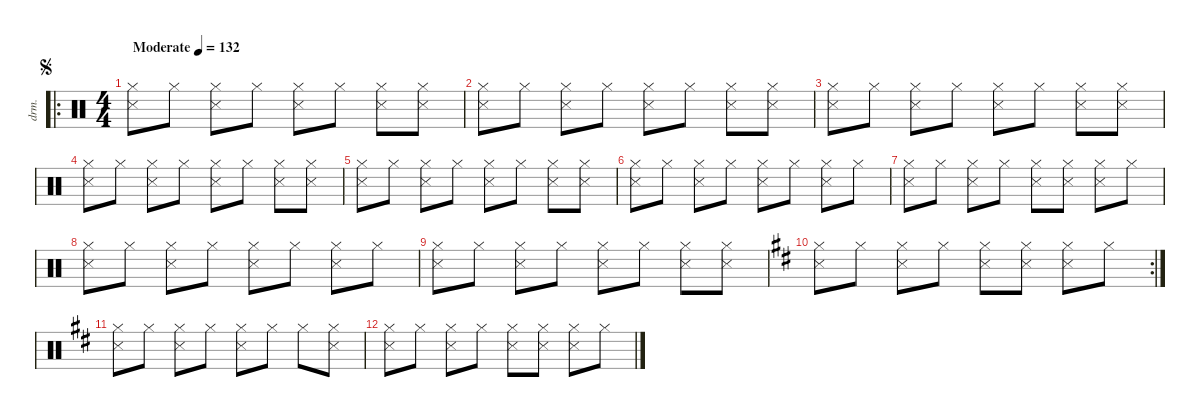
\defaultSystemsLayout 4
\hideDynamics
\bracketExtendMode nobrackets
\otherSystemsTrackNameOrientation horizontal
\track ("Percussion" "drm.") {instrument percussion}
\staff {score}
\articulation defaults
\ro
\ts (4 4)
\beaming (8 2 2 2 2)
\jump segno
\tempo (132 "Moderate")
\clef neutral
\ks c
("Hi-Hat (closed)" "Snare (side stick) 3").8{dy f beam Down} "Hi-Hat (closed)".8{beam Down} ("Hi-Hat (closed)" "Snare (side stick) 3").8{beam Down} "Hi-Hat (closed)".8{beam Down} ("Hi-Hat (closed)" "Snare (side stick) 3").8{beam Down} "Hi-Hat (closed)".8{beam Down} ("Hi-Hat (closed)" "Snare (side stick) 3").8{beam Down} ("Hi-Hat (closed)" "Snare (side stick) 3").8{beam Down} |
("Hi-Hat (closed)" "Snare (side stick) 3").8{beam Down} "Hi-Hat (closed)".8{beam Down} ("Hi-Hat (closed)" "Snare (side stick) 3").8{beam Down} "Hi-Hat (closed)".8{beam Down} ("Hi-Hat (closed)" "Snare (side stick) 3").8{beam Down} "Hi-Hat (closed)".8{beam Down} ("Hi-Hat (closed)" "Snare (side stick) 3").8{beam Down} ("Hi-Hat (closed)" "Snare (side stick) 3").8{beam Down} |
("Hi-Hat (closed)" "Snare (side stick) 3").8{beam Down} "Hi-Hat (closed)".8{beam Down} ("Hi-Hat (closed)" "Snare (side stick) 3").8{beam Down} "Hi-Hat (closed)".8{beam Down} ("Hi-Hat (closed)" "Snare (side stick) 3").8{beam Down} "Hi-Hat (closed)".8{beam Down} ("Hi-Hat (closed)" "Snare (side stick) 3").8{beam Down} ("Hi-Hat (closed)" "Snare (side stick) 3").8{beam Down} |
("Hi-Hat (closed)" "Snare (side stick) 3").8{beam Down} "Hi-Hat (closed)".8{beam Down} ("Hi-Hat (closed)" "Snare (side stick) 3").8{beam Down} "Hi-Hat (closed)".8{beam Down} ("Hi-Hat (closed)" "Snare (side stick) 3").8{beam Down} "Hi-Hat (closed)".8{beam Down} ("Hi-Hat (closed)" "Snare (side stick) 3").8{beam Down} ("Hi-Hat (closed)" "Snare (side stick) 3").8{beam Down} |
("Hi-Hat (closed)" "Snare (side stick) 3").8{beam Down} "Hi-Hat (closed)".8{beam Down} ("Hi-Hat (closed)" "Snare (side stick) 3").8{beam Down} "Hi-Hat (closed)".8{beam Down} ("Hi-Hat (closed)" "Snare (side stick) 3").8{beam Down} "Hi-Hat (closed)".8{beam Down} ("Hi-Hat (closed)" "Snare (side stick) 3").8{beam Down} ("Hi-Hat (closed)" "Snare (side stick) 3").8{beam Down} |
("Hi-Hat (closed)" "Snare (side stick) 3").8{beam Down} "Hi-Hat (closed)".8{beam Down} ("Hi-Hat (closed)" "Snare (side stick) 3").8{beam Down} "Hi-Hat (closed)".8{beam Down} ("Hi-Hat (closed)" "Snare (side stick) 3").8{beam Down} "Hi-Hat (closed)".8{beam Down} ("Hi-Hat (closed)" "Snare (side stick) 3").8{beam Down} "Hi-Hat (closed)".8{beam Down} |
("Hi-Hat (closed)" "Snare (side stick) 3").8{beam Down} "Hi-Hat (closed)".8{beam Down} ("Hi-Hat (closed)" "Snare (side stick) 3").8{beam Down} "Hi-Hat (closed)".8{beam Down} ("Hi-Hat (closed)" "Snare (side stick) 3").8{beam Down} ("Hi-Hat (closed)" "Snare (side stick) 3").8{beam Down} ("Hi-Hat (closed)" "Snare (side stick) 3").8{beam Down} "Hi-Hat (closed)".8{beam Down} |
("Hi-Hat (closed)" "Snare (side stick) 3").8{beam Down} "Hi-Hat (closed)".8{beam Down} ("Hi-Hat (closed)" "Snare (side stick) 3").8{beam Down} "Hi-Hat (closed)".8{beam Down} ("Hi-Hat (closed)" "Snare (side stick) 3").8{beam Down} "Hi-Hat (closed)".8{beam Down} ("Hi-Hat (closed)" "Snare (side stick) 3").8{beam Down} "Hi-Hat (closed)".8{beam Down} |
("Hi-Hat (closed)" "Snare (side stick) 3").8{beam Down} "Hi-Hat (closed)".8{beam Down} ("Hi-Hat (closed)" "Snare (side stick) 3").8{beam Down} "Hi-Hat (closed)".8{beam Down} ("Hi-Hat (closed)" "Snare (side stick) 3").8{beam Down} "Hi-Hat (closed)".8{beam Down} ("Hi-Hat (closed)" "Snare (side stick) 3").8{beam Down} ("Hi-Hat (closed)" "Snare (side stick) 3").8{beam Down} |
\rc 2
\ks d
("Hi-Hat (closed)"{acc forcenatural} "Snare (side stick) 3"{acc forcenatural}).8{beam Down} "Hi-Hat (closed)"{acc forcenatural}.8{beam Down} ("Hi-Hat (closed)"{acc forcenatural} "Snare (side stick) 3"{acc forcenatural}).8{beam Down} "Hi-Hat (closed)"{acc forcenatural}.8{beam Down} ("Hi-Hat (closed)"{acc forcenatural} "Snare (side stick) 3"{acc forcenatural}).8{beam Down} ("Hi-Hat (closed)"{acc forcenatural} "Snare (side stick) 3"{acc forcenatural}).8{beam Down} ("Hi-Hat (closed)"{acc forcenatural} "Snare (side stick) 3"{acc forcenatural}).8{beam Down} "Hi-Hat (closed)"{acc forcenatural}.8{beam Down} |
("Hi-Hat (closed)"{acc forcenatural} "Snare (side stick) 3"{acc forcenatural}).8 "Hi-Hat (closed)"{acc forcenatural}.8 ("Hi-Hat (closed)"{acc forcenatural} "Snare (side stick) 3"{acc forcenatural}).8 "Hi-Hat (closed)"{acc forcenatural}.8 ("Hi-Hat (closed)"{acc forcenatural} "Snare (side stick) 3"{acc forcenatural}).8 "Hi-Hat (closed)"{acc forcenatural}.8 "Hi-Hat (closed)"{acc forcenatural}.8 ("Hi-Hat (closed)"{acc forcenatural} "Snare (side stick) 3"{acc forcenatural}).8 |
("Hi-Hat (closed)"{acc forcenatural} "Snare (side stick) 3"{acc forcenatural}).8{beam Down} "Hi-Hat (closed)"{acc forcenatural}.8{beam Down} ("Hi-Hat (closed)"{acc forcenatural} "Snare (side stick) 3"{acc forcenatural}).8{beam Down} "Hi-Hat (closed)"{acc forcenatural}.8{beam Down} ("Hi-Hat (closed)"{acc forcenatural} "Snare (side stick) 3"{acc forcenatural}).8{beam Down} ("Hi-Hat (closed)"{acc forcenatural} "Snare (side stick) 3"{acc forcenatural}).8{beam Down} ("Hi-Hat (closed)"{acc forcenatural} "Snare (side stick) 3"{acc forcenatural}).8{beam Down} "Hi-Hat (closed)"{acc forcenatural}.8{beam Down}
